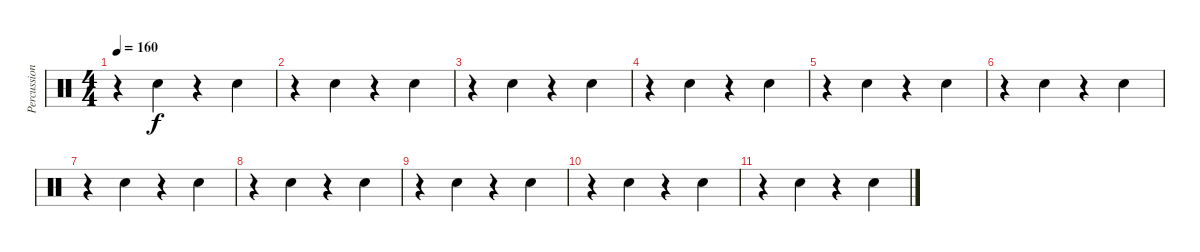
\track ("Percussion" "Percussion") {instrument percussion}
\staff {score}
\articulation defaults
\ts (4 4)
\tempo 160
\clef neutral
\ks c
r.4{dy f} "Hand Clap (hit)".4 r.4 "Hand Clap (hit)".4 |
r.4 "Hand Clap (hit)".4 r.4 "Hand Clap (hit)".4 |
r.4 "Hand Clap (hit)".4 r.4 "Hand Clap (hit)".4 |
r.4 "Hand Clap (hit)".4 r.4 "Hand Clap (hit)".4 |
r.4 "Hand Clap (hit)".4 r.4 "Hand Clap (hit)".4 |
r.4 "Hand Clap (hit)".4 r.4 "Hand Clap (hit)".4 |
r.4 "Hand Clap (hit)".4 r.4 "Hand Clap (hit)".4 |
r.4 "Hand Clap (hit)".4 r.4 "Hand Clap (hit)".4 |
r.4 "Hand Clap (hit)".4 r.4 "Hand Clap (hit)".4 |
r.4 "Hand Clap (hit)".4 r.4 "Hand Clap (hit)".4 |
r.4 "Hand Clap (hit)".4 r.4 "Hand Clap (hit)".4
